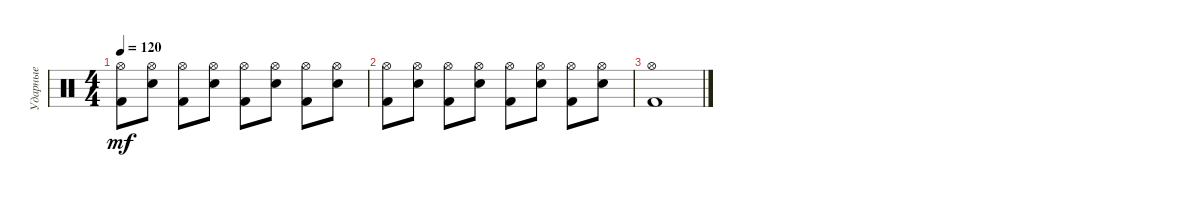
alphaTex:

\track ("Ударные" "Ударные") {instrument percussion}
\staff {score}
\articulation defaults
\ts (4 4)
\tempo 120
\clef neutral
\ks c
("Hi-Hat (open)" "Kick (hit) 2").8{dy mf} ("Hi-Hat (open)" "Electric Snare (hit)").8 ("Hi-Hat (open)" "Kick (hit) 2").8 ("Hi-Hat (open)" "Electric Snare (hit)").8 ("Hi-Hat (open)" "Kick (hit) 2").8 ("Hi-Hat (open)" "Electric Snare (hit)").8 ("Hi-Hat (open)" "Kick (hit) 2").8 ("Hi-Hat (open)" "Electric Snare (hit)").8 |
("Hi-Hat (open)" "Kick (hit) 2").8 ("Hi-Hat (open)" "Electric Snare (hit)").8 ("Hi-Hat (open)" "Kick (hit) 2").8 ("Hi-Hat (open)" "Electric Snare (hit)").8 ("Hi-Hat (open)" "Kick (hit) 2").8 ("Hi-Hat (open)" "Electric Snare (hit)").8 ("Hi-Hat (open)" "Kick (hit) 2").8 ("Hi-Hat (open)" "Electric Snare (hit)").8 |
("Hi-Hat (open)" "Kick (hit) 2").1
